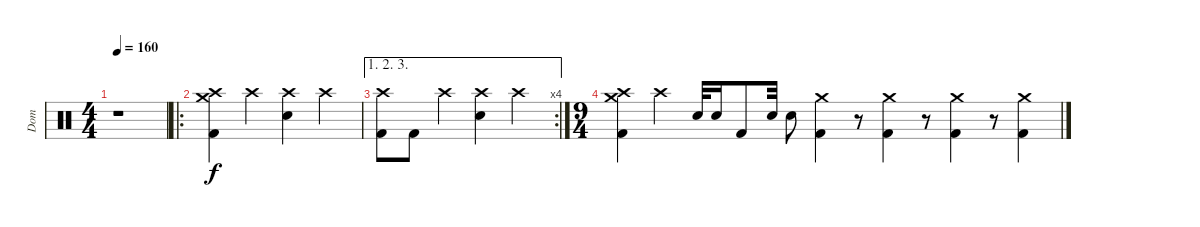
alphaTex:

\track ("Dom" "Dom") {instrument percussion}
\staff {score}
\articulation defaults
\ts (4 4)
\tempo 160
\clef neutral
\ks c
r.1{dy f} |
\ro
("Kick (hit) 2" "Crash high (hit)" "Crash medium (hit)").4 "Crash high (hit)".4 ("Crash high (hit)" "Snare (hit) 2").4 "Crash high (hit)".4 |
\ae (1 2 3)
\rc 4
("Kick (hit) 2" "Crash high (hit)").8 "Kick (hit) 2".8 "Crash high (hit)".4 ("Crash high (hit)" "Snare (hit) 2").4 "Crash high (hit)".4 |
\ts (9 4)
("Kick (hit) 2" "Crash high (hit)" "Crash medium (hit)").4 "Crash high (hit)".4 "Snare (hit) 2".32 "Snare (hit) 2".16 "Kick (hit) 2".8 "Snare (hit) 2".32 "Snare (hit) 2".8 ("Kick (hit) 2" "Crash medium (hit)").4 r.8 ("Kick (hit) 2" "Crash medium (hit)").4 r.8 ("Kick (hit) 2" "Crash medium (hit)").4 r.8 ("Kick (hit) 2" "Crash medium (hit)").4
